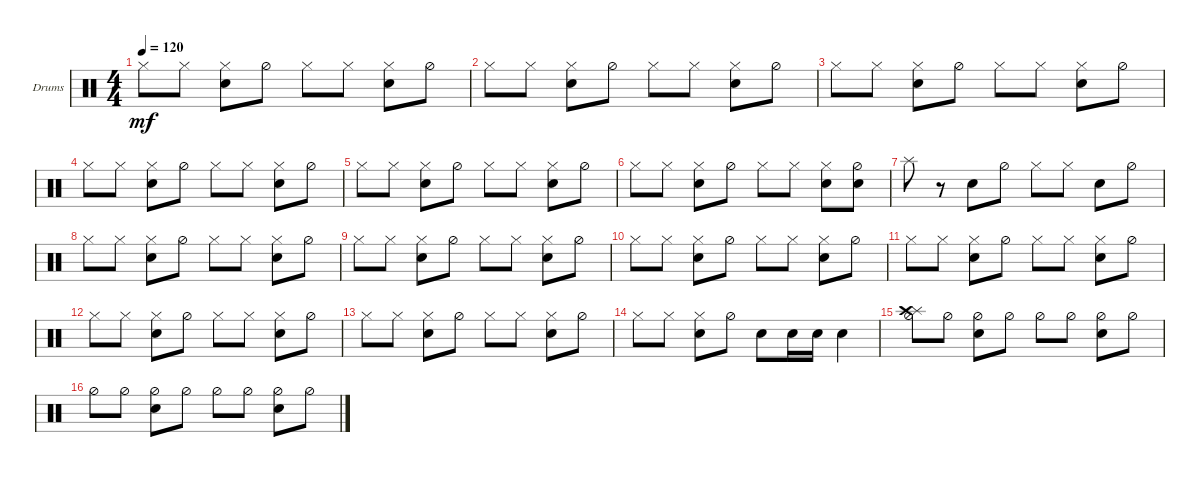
\defaultSystemsLayout 4
\bracketExtendMode groupsimilarinstruments
\firstSystemTrackNameOrientation horizontal
\otherSystemsTrackNameOrientation horizontal
\track ("Drums" "Drums") {instrument percussion}
\staff {score}
\articulation defaults
\ts (4 4)
\tempo 120
\clef neutral
\scale
0.333333
\ks c "Hi-Hat (closed)".8{dy mf} "Hi-Hat (closed)".8
("Snare (hit) 2" "Hi-Hat (closed)").8 "Hi-Hat (half)".8 "Hi-Hat (closed)".8 "Hi-Hat (closed)".8 ("Snare (hit) 2" "Hi-Hat (closed)").8 "Hi-Hat (half)".8 |
\scale
0.333333 "Hi-Hat (closed)".8 "Hi-Hat (closed)".8 ("Snare (hit) 2" "Hi-Hat (closed)").8 "Hi-Hat (half)".8 "Hi-Hat (closed)".8 "Hi-Hat (closed)".8 ("Snare (hit) 2" "Hi-Hat (closed)").8 "Hi-Hat (half)".8 |
\scale
0.333333 "Hi-Hat (closed)".8 "Hi-Hat (closed)".8 ("Snare (hit) 2" "Hi-Hat (closed)").8 "Hi-Hat (half)".8 "Hi-Hat (closed)".8 "Hi-Hat (closed)".8 ("Snare (hit) 2" "Hi-Hat (closed)").8 "Hi-Hat (half)".8 |
\scale
0.333333 "Hi-Hat (closed)".8 "Hi-Hat (closed)".8 ("Snare (hit) 2" "Hi-Hat (closed)").8 "Hi-Hat (half)".8 "Hi-Hat (closed)".8 "Hi-Hat (closed)".8 ("Snare (hit) 2" "Hi-Hat (closed)").8 "Hi-Hat (half)".8 |
\scale
0.333333 "Hi-Hat (closed)".8 "Hi-Hat (closed)".8 ("Snare (hit) 2" "Hi-Hat (closed)").8 "Hi-Hat (half)".8 "Hi-Hat (closed)".8 "Hi-Hat (closed)".8 ("Snare (hit) 2" "Hi-Hat (closed)").8 "Hi-Hat (half)".8 |
\scale
0.333333 "Hi-Hat (closed)".8 "Hi-Hat (closed)".8 ("Snare (hit) 2" "Hi-Hat (closed)").8 "Hi-Hat (half)".8 "Hi-Hat (closed)".8 "Hi-Hat (closed)".8 ("Snare (hit) 2" "Hi-Hat (closed)").8 ("Hi-Hat (half)" "Snare (hit) 2").8 |
\scale
0.333333 "Splash (hit)".8 r.8 "Snare (hit) 2".8 "Hi-Hat (half)".8 "Hi-Hat (closed)".8 "Hi-Hat (closed)".8 "Snare (hit) 2".8 "Hi-Hat (half)".8 |
\scale
0.333333 "Hi-Hat (closed)".8 "Hi-Hat (closed)".8 ("Snare (hit) 2" "Hi-Hat (closed)").8 "Hi-Hat (half)".8 "Hi-Hat (closed)".8 "Hi-Hat (closed)".8 ("Snare (hit) 2" "Hi-Hat (closed)").8 "Hi-Hat (half)".8 |
\scale
0.333333 "Hi-Hat (closed)".8 "Hi-Hat (closed)".8 ("Snare (hit) 2" "Hi-Hat (closed)").8 "Hi-Hat (half)".8 "Hi-Hat (closed)".8 "Hi-Hat (closed)".8 ("Snare (hit) 2" "Hi-Hat (closed)").8 "Hi-Hat (half)".8 |
\scale
0.333333 "Hi-Hat (closed)".8 "Hi-Hat (closed)".8 ("Snare (hit) 2" "Hi-Hat (closed)").8 "Hi-Hat (half)".8 "Hi-Hat (closed)".8 "Hi-Hat (closed)".8 ("Snare (hit) 2" "Hi-Hat (closed)").8 "Hi-Hat (half)".8 |
\scale
0.333333 "Hi-Hat (closed)".8 "Hi-Hat (closed)".8 ("Snare (hit) 2" "Hi-Hat (closed)").8 "Hi-Hat (half)".8 "Hi-Hat (closed)".8 "Hi-Hat (closed)".8 ("Snare (hit) 2" "Hi-Hat (closed)").8 "Hi-Hat (half)".8 |
\scale
0.333333 "Hi-Hat (closed)".8 "Hi-Hat (closed)".8 ("Snare (hit) 2" "Hi-Hat (closed)").8 "Hi-Hat (half)".8 "Hi-Hat (closed)".8 "Hi-Hat (closed)".8 ("Snare (hit) 2" "Hi-Hat (closed)").8 "Hi-Hat (half)".8 |
\scale
0.333333 "Hi-Hat (closed)".8 "Hi-Hat (closed)".8 ("Snare (hit) 2" "Hi-Hat (closed)").8 "Hi-Hat (half)".8 "Hi-Hat (closed)".8 "Hi-Hat (closed)".8 ("Snare (hit) 2" "Hi-Hat (closed)").8 "Hi-Hat (half)".8 |
\scale
0.333333 "Hi-Hat (closed)".8 "Hi-Hat (closed)".8 ("Snare (hit) 2" "Hi-Hat (closed)").8 "Hi-Hat (half)".8 "Snare (hit) 2".8 "Snare (hit) 2".16 "Snare (hit) 2".16 "Snare (hit) 2".4 |
\scale
0.333333 ("Splash (hit)" "Hi-Hat (half)" "Crash high (hit)").8 "Hi-Hat (half)".8 ("Snare (hit) 2" "Hi-Hat (half)").8 "Hi-Hat (half)".8 "Hi-Hat (half)".8 "Hi-Hat (half)".8 ("Snare (hit) 2" "Hi-Hat (half)").8 "Hi-Hat (half)".8 |
\scale
0.333333 "Hi-Hat (half)".8 "Hi-Hat (half)".8 ("Snare (hit) 2" "Hi-Hat (half)").8 "Hi-Hat (half)".8 "Hi-Hat (half)".8 "Hi-Hat (half)".8 ("Snare (hit) 2" "Hi-Hat (half)").8 "Hi-Hat (half)".8
